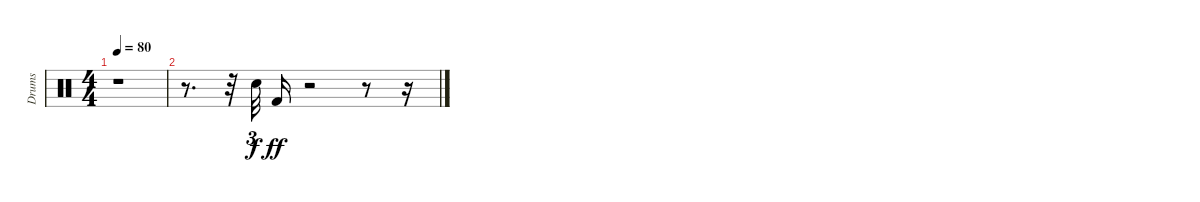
\track ("Drums" "Drums") {instrument percussion}
\staff {score}
\articulation defaults
\ts (4 4)
\tempo 80
\clef neutral
\ks c
r.1{dy f} |
r.8{d} r.32 "Snare (hit) 2".32{tu (3 2)} "Kick (hit) 2".16{dy ff} r.2 r.8 r.16
